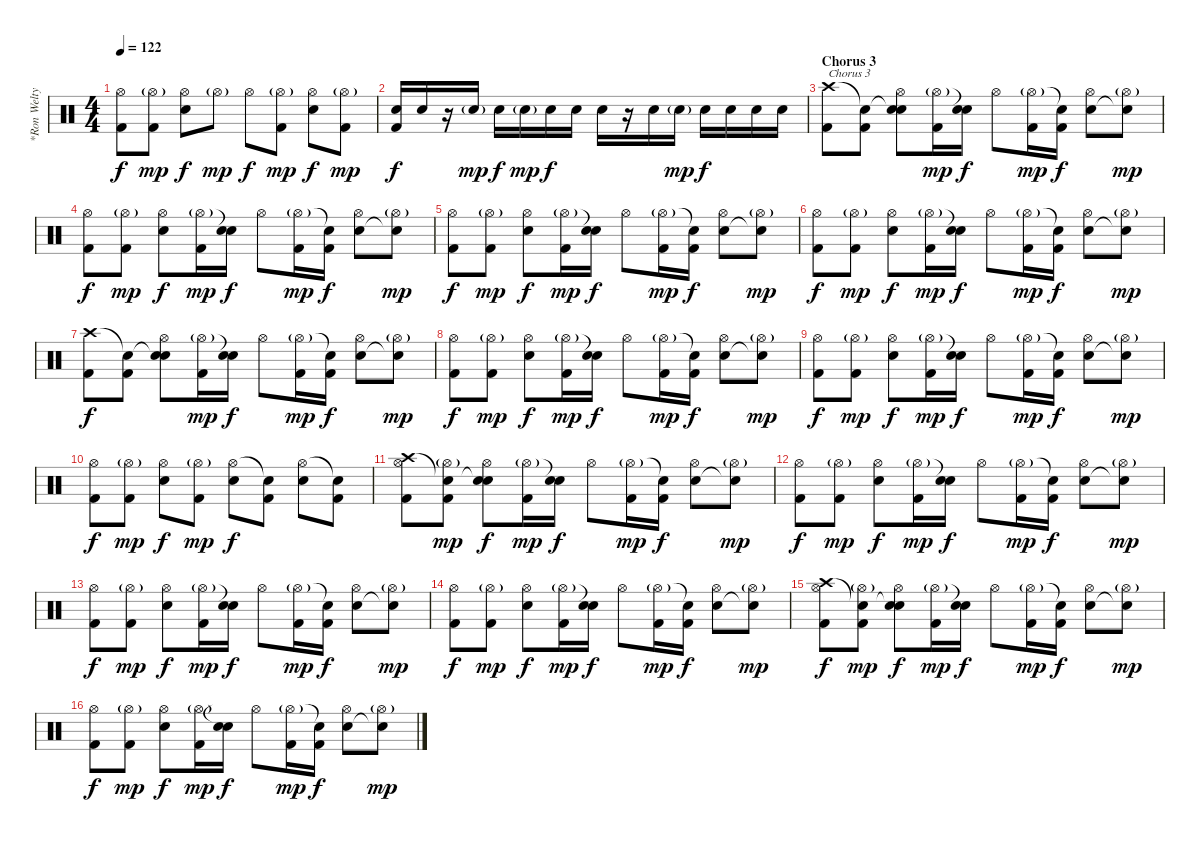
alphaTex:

\track ("*Ron Welty (Ex-drummer)" "*Ron Welty") {instrument percussion}
\staff {score}
\articulation defaults
\ts (4 4)
\tempo 122
\clef neutral
\ks c
("Hi-Hat (open)" "Kick (hit) 2").8{dy f} ("Hi-Hat (open)"{g} "Kick (hit) 2").8{dy mp} ("Hi-Hat (open)" "Electric Snare (hit)").8{dy f} "Hi-Hat (open)"{g}.8{dy mp} "Hi-Hat (open)".8{dy f} ("Hi-Hat (open)"{g} "Kick (hit) 2").8{dy mp} ("Hi-Hat (open)" "Electric Snare (hit)").8{dy f} ("Hi-Hat (open)"{g} "Kick (hit) 2").8{dy mp} |
("Electric Snare (hit)" "Kick (hit) 2").16{dy f} "Electric Snare (hit)".16 r.16 "Electric Snare (hit)"{g}.16{dy mp} "Electric Snare (hit)".16{dy f} "Electric Snare (hit)"{g}.16{dy mp} "Electric Snare (hit)".16{dy f} "Electric Snare (hit)".16 "Electric Snare (hit)".16 r.16 "Electric Snare (hit)".16 "Electric Snare (hit)"{g}.16{dy mp} "Electric Snare (hit)".16{dy f} "Electric Snare (hit)".16 "Electric Snare (hit)".16 "Electric Snare (hit)".16 |
\section ("" "Chorus 3")
("Crash high (hit)" "Kick (hit) 2").8{txt "Chorus 3" balance 8} ("Snare (hit)"{t} "Kick (hit) 2").8 ("Snare (hit)"{t} "Hi-Hat (open)" "Electric Snare (hit)").8 ("Hi-Hat (open)"{g} "Kick (hit) 2").16{dy mp} ("Snare (hit)"{t} "Electric Snare (hit)").16{dy f} "Hi-Hat (open)".8 ("Hi-Hat (open)"{g} "Kick (hit) 2").16{dy mp} ("Snare (hit)"{t} "Kick (hit) 2").16{dy f} ("Hi-Hat (open)" "Electric Snare (hit)").8 ("Hi-Hat (open)"{g} "Snare (hit)"{t}).8{dy mp} |
("Hi-Hat (open)" "Kick (hit) 2").8{dy f} ("Hi-Hat (open)"{g} "Kick (hit) 2").8{dy mp} ("Hi-Hat (open)" "Electric Snare (hit)").8{dy f} ("Hi-Hat (open)"{g} "Kick (hit) 2").16{dy mp} ("Snare (hit)"{t} "Electric Snare (hit)").16{dy f} "Hi-Hat (open)".8 ("Hi-Hat (open)"{g} "Kick (hit) 2").16{dy mp} ("Snare (hit)"{t} "Kick (hit) 2").16{dy f} ("Hi-Hat (open)" "Electric Snare (hit)").8 ("Hi-Hat (open)"{g} "Snare (hit)"{t}).8{dy mp} |
("Hi-Hat (open)" "Kick (hit) 2").8{dy f} ("Hi-Hat (open)"{g} "Kick (hit) 2").8{dy mp} ("Hi-Hat (open)" "Electric Snare (hit)").8{dy f} ("Hi-Hat (open)"{g} "Kick (hit) 2").16{dy mp} ("Snare (hit)"{t} "Electric Snare (hit)").16{dy f} "Hi-Hat (open)".8 ("Hi-Hat (open)"{g} "Kick (hit) 2").16{dy mp} ("Snare (hit)"{t} "Kick (hit) 2").16{dy f} ("Hi-Hat (open)" "Electric Snare (hit)").8 ("Hi-Hat (open)"{g} "Snare (hit)"{t}).8{dy mp} |
("Hi-Hat (open)" "Kick (hit) 2").8{dy f} ("Hi-Hat (open)"{g} "Kick (hit) 2").8{dy mp} ("Hi-Hat (open)" "Electric Snare (hit)").8{dy f} ("Hi-Hat (open)"{g} "Kick (hit) 2").16{dy mp} ("Snare (hit)"{t} "Electric Snare (hit)").16{dy f} "Hi-Hat (open)".8 ("Hi-Hat (open)"{g} "Kick (hit) 2").16{dy mp} ("Snare (hit)"{t} "Kick (hit) 2").16{dy f} ("Hi-Hat (open)" "Electric Snare (hit)").8 ("Hi-Hat (open)"{g} "Snare (hit)"{t}).8{dy mp} |
("Crash high (hit)" "Kick (hit) 2").8{dy f} ("Snare (hit)"{t} "Kick (hit) 2").8 ("Snare (hit)"{t} "Hi-Hat (open)" "Electric Snare (hit)").8 ("Hi-Hat (open)"{g} "Kick (hit) 2").16{dy mp} ("Snare (hit)"{t} "Electric Snare (hit)").16{dy f} "Hi-Hat (open)".8 ("Hi-Hat (open)"{g} "Kick (hit) 2").16{dy mp} ("Snare (hit)"{t} "Kick (hit) 2").16{dy f} ("Hi-Hat (open)" "Electric Snare (hit)").8 ("Hi-Hat (open)"{g} "Snare (hit)"{t}).8{dy mp} |
("Hi-Hat (open)" "Kick (hit) 2").8{dy f} ("Hi-Hat (open)"{g} "Kick (hit) 2").8{dy mp} ("Hi-Hat (open)" "Electric Snare (hit)").8{dy f} ("Hi-Hat (open)"{g} "Kick (hit) 2").16{dy mp} ("Snare (hit)"{t} "Electric Snare (hit)").16{dy f} "Hi-Hat (open)".8 ("Hi-Hat (open)"{g} "Kick (hit) 2").16{dy mp} ("Snare (hit)"{t} "Kick (hit) 2").16{dy f} ("Hi-Hat (open)" "Electric Snare (hit)").8 ("Hi-Hat (open)"{g} "Snare (hit)"{t}).8{dy mp} |
("Hi-Hat (open)" "Kick (hit) 2").8{dy f} ("Hi-Hat (open)"{g} "Kick (hit) 2").8{dy mp} ("Hi-Hat (open)" "Electric Snare (hit)").8{dy f} ("Hi-Hat (open)"{g} "Kick (hit) 2").16{dy mp} ("Snare (hit)"{t} "Electric Snare (hit)").16{dy f} "Hi-Hat (open)".8 ("Hi-Hat (open)"{g} "Kick (hit) 2").16{dy mp} ("Snare (hit)"{t} "Kick (hit) 2").16{dy f} ("Hi-Hat (open)" "Electric Snare (hit)").8 ("Hi-Hat (open)"{g} "Snare (hit)"{t}).8{dy mp} |
("Hi-Hat (open)" "Kick (hit) 2").8{dy f} ("Hi-Hat (open)"{g} "Kick (hit) 2").8{dy mp} ("Hi-Hat (open)" "Electric Snare (hit)").8{dy f} ("Hi-Hat (open)"{g} "Kick (hit) 2").8{dy mp} ("Hi-Hat (open)" "Electric Snare (hit)").8{dy f} ("Snare (hit)"{t} "Kick (hit) 2").8 ("Hi-Hat (open)" "Electric Snare (hit)").8 ("Snare (hit)"{t} "Kick (hit) 2").8 |
("Crash high (hit)" "Hi-Hat (open)" "Kick (hit) 2").8{balance 8} ("Snare (hit)"{t} "Hi-Hat (open)"{g} "Kick (hit) 2").8{dy mp} ("Snare (hit)"{t} "Hi-Hat (open)" "Electric Snare (hit)").8{dy f} ("Hi-Hat (open)"{g} "Kick (hit) 2").16{dy mp} ("Snare (hit)"{t} "Electric Snare (hit)").16{dy f} "Hi-Hat (open)".8 ("Hi-Hat (open)"{g} "Kick (hit) 2").16{dy mp} ("Snare (hit)"{t} "Kick (hit) 2").16{dy f} ("Hi-Hat (open)" "Electric Snare (hit)").8 ("Hi-Hat (open)"{g} "Snare (hit)"{t}).8{dy mp} |
("Hi-Hat (open)" "Kick (hit) 2").8{dy f} ("Hi-Hat (open)"{g} "Kick (hit) 2").8{dy mp} ("Hi-Hat (open)" "Electric Snare (hit)").8{dy f} ("Hi-Hat (open)"{g} "Kick (hit) 2").16{dy mp} ("Snare (hit)"{t} "Electric Snare (hit)").16{dy f} "Hi-Hat (open)".8 ("Hi-Hat (open)"{g} "Kick (hit) 2").16{dy mp} ("Snare (hit)"{t} "Kick (hit) 2").16{dy f} ("Hi-Hat (open)" "Electric Snare (hit)").8 ("Hi-Hat (open)"{g} "Snare (hit)"{t}).8{dy mp} |
("Hi-Hat (open)" "Kick (hit) 2").8{dy f} ("Hi-Hat (open)"{g} "Kick (hit) 2").8{dy mp} ("Hi-Hat (open)" "Electric Snare (hit)").8{dy f} ("Hi-Hat (open)"{g} "Kick (hit) 2").16{dy mp} ("Snare (hit)"{t} "Electric Snare (hit)").16{dy f} "Hi-Hat (open)".8 ("Hi-Hat (open)"{g} "Kick (hit) 2").16{dy mp} ("Snare (hit)"{t} "Kick (hit) 2").16{dy f} ("Hi-Hat (open)" "Electric Snare (hit)").8 ("Hi-Hat (open)"{g} "Snare (hit)"{t}).8{dy mp} |
("Hi-Hat (open)" "Kick (hit) 2").8{dy f} ("Hi-Hat (open)"{g} "Kick (hit) 2").8{dy mp} ("Hi-Hat (open)" "Electric Snare (hit)").8{dy f} ("Hi-Hat (open)"{g} "Kick (hit) 2").16{dy mp} ("Snare (hit)"{t} "Electric Snare (hit)").16{dy f} "Hi-Hat (open)".8 ("Hi-Hat (open)"{g} "Kick (hit) 2").16{dy mp} ("Snare (hit)"{t} "Kick (hit) 2").16{dy f} ("Hi-Hat (open)" "Electric Snare (hit)").8 ("Hi-Hat (open)"{g} "Snare (hit)"{t}).8{dy mp} |
("Crash high (hit)" "Hi-Hat (open)" "Kick (hit) 2").8{dy f balance 8} ("Snare (hit)"{t} "Hi-Hat (open)"{g} "Kick (hit) 2").8{dy mp} ("Snare (hit)"{t} "Hi-Hat (open)" "Electric Snare (hit)").8{dy f} ("Hi-Hat (open)"{g} "Kick (hit) 2").16{dy mp} ("Snare (hit)"{t} "Electric Snare (hit)").16{dy f} "Hi-Hat (open)".8 ("Hi-Hat (open)"{g} "Kick (hit) 2").16{dy mp} ("Snare (hit)"{t} "Kick (hit) 2").16{dy f} ("Hi-Hat (open)" "Electric Snare (hit)").8 ("Hi-Hat (open)"{g} "Snare (hit)"{t}).8{dy mp} |
("Hi-Hat (open)" "Kick (hit) 2").8{dy f} ("Hi-Hat (open)"{g} "Kick (hit) 2").8{dy mp} ("Hi-Hat (open)" "Electric Snare (hit)").8{dy f} ("Hi-Hat (open)"{g} "Kick (hit) 2").16{dy mp} ("Snare (hit)"{t} "Electric Snare (hit)").16{dy f} "Hi-Hat (open)".8 ("Hi-Hat (open)"{g} "Kick (hit) 2").16{dy mp} ("Snare (hit)"{t} "Kick (hit) 2").16{dy f} ("Hi-Hat (open)" "Electric Snare (hit)").8 ("Hi-Hat (open)"{g} "Snare (hit)"{t}).8{dy mp}
